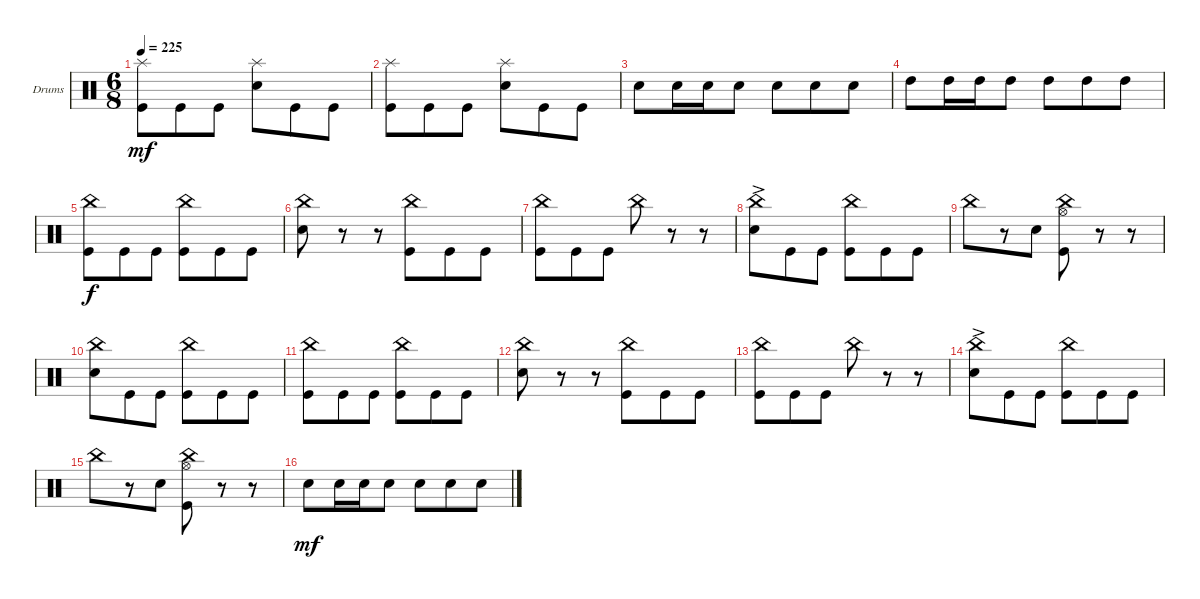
\bracketExtendMode groupsimilarinstruments
\firstSystemTrackNameOrientation horizontal
\otherSystemsTrackNameOrientation horizontal
\track ("Drumkit" "Drums") {solo instrument percussion}
\staff {score}
\articulation defaults
\ts (6 8)
\tempo 225
\clef neutral
\ks c
("Kick (hit)" "Splash (hit)").8{dy mf} "Kick (hit)".8 "Kick (hit)".8 ("Snare (hit) 2" "Splash (hit)").8 "Kick (hit)".8 "Kick (hit)".8 |
("Kick (hit)" "Splash (hit)").8 "Kick (hit)".8 "Kick (hit)".8 ("Snare (hit) 2" "Splash (hit)").8 "Kick (hit)".8 "Kick (hit)".8 |
"Snare (hit) 2".8 "Snare (hit) 2".16 "Snare (hit) 2".16 "Snare (hit) 2".8 "Snare (hit) 2".8 "Snare (hit) 2".8 "Snare (hit) 2".8 |
"High Tom (hit)".8 "High Tom (hit)".16 "High Tom (hit)".16 "High Tom (hit)".8 "High Tom (hit)".8 "High Tom (hit)".8 "High Tom (hit)".8 |
("Kick (hit)" "China (hit)").8{dy f} "Kick (hit)".8 "Kick (hit)".8 ("Kick (hit)" "China (hit)").8 "Kick (hit)".8 "Kick (hit)".8 |
("Snare (hit) 2" "China (hit)").8 r.8 r.8 ("Kick (hit)" "China (hit)").8 "Kick (hit)".8 "Kick (hit)".8 |
("Kick (hit)" "China (hit)").8 "Kick (hit)".8 "Kick (hit)".8 "China (hit)".8 r.8 r.8 |
("Snare (hit) 2"{ac} "China (hit)").8 "Kick (hit)".8 "Kick (hit)".8 ("Kick (hit)" "China (hit)").8 "Kick (hit)".8 "Kick (hit)".8 |
"China (hit)".8 r.8 "Snare (hit) 2".8 ("Kick (hit)" "Hi-Hat (open)" "China (hit)").8 r.8 r.8 |
("Snare (hit) 2" "China (hit)").8 "Kick (hit)".8 "Kick (hit)".8 ("Kick (hit)" "China (hit)").8 "Kick (hit)".8 "Kick (hit)".8 |
("Kick (hit)" "China (hit)").8 "Kick (hit)".8 "Kick (hit)".8 ("Kick (hit)" "China (hit)").8 "Kick (hit)".8 "Kick (hit)".8 |
("Snare (hit) 2" "China (hit)").8 r.8 r.8 ("Kick (hit)" "China (hit)").8 "Kick (hit)".8 "Kick (hit)".8 |
("Kick (hit)" "China (hit)").8 "Kick (hit)".8 "Kick (hit)".8 "China (hit)".8 r.8 r.8 |
("Snare (hit) 2"{ac} "China (hit)").8 "Kick (hit)".8 "Kick (hit)".8 ("Kick (hit)" "China (hit)").8 "Kick (hit)".8 "Kick (hit)".8 |
"China (hit)".8 r.8 "Snare (hit) 2".8 ("Kick (hit)" "Hi-Hat (open)" "China (hit)").8 r.8 r.8 |
"Snare (hit) 2".8{dy mf} "Snare (hit) 2".16 "Snare (hit) 2".16 "Snare (hit) 2".8 "Snare (hit) 2".8 "Snare (hit) 2".8 "Snare (hit) 2".8
